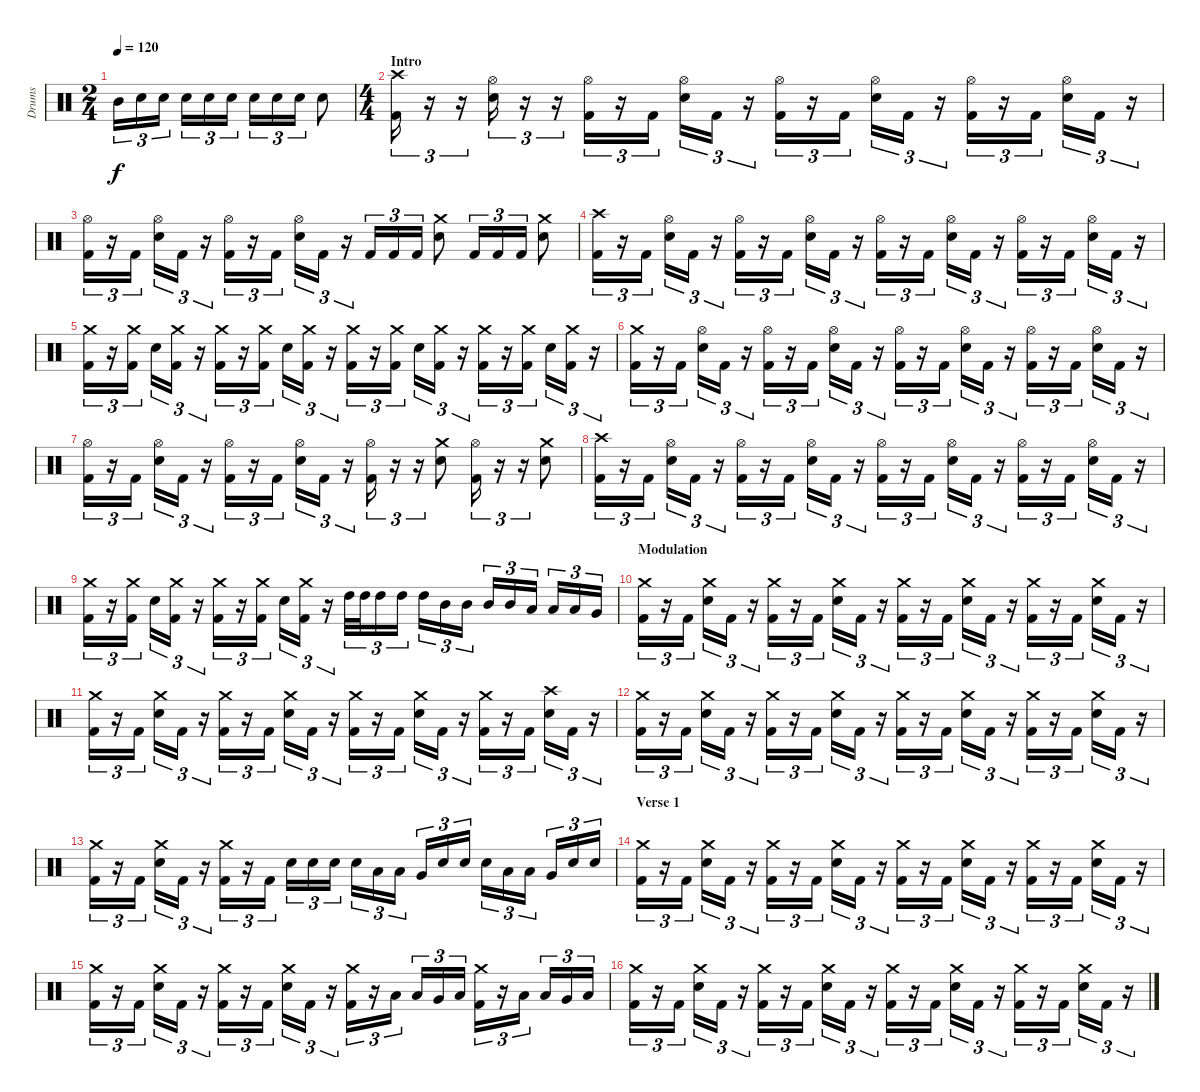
\track ("Drums" "Drums") {instrument percussion}
\staff {score}
\articulation defaults
\ts (2 4)
\tempo 120
\tempo 85
\tempo 120
\clef neutral
\ks c "Mid Tom (hit)".16{tu (3 2) dy f} "Electric Snare (hit)".16{tu (3 2)} "Electric Snare (hit)".16{tu (3 2)} "Electric Snare (hit)".16{tu (3 2)} "Electric Snare (hit)".16{tu (3 2)} "Electric Snare (hit)".16{tu (3 2)} "Electric Snare (hit)".16{tu (3 2)} "Electric Snare (hit)".16{tu (3 2)} "Electric Snare (hit)".16{tu (3 2)} "Electric Snare (hit)".8
|
\ts (4 4)
\section ("" "Intro")
("Crash high (hit)" "Kick (hit) 2").16{tu (3 2)} r.16{tu (3 2)} r.16{tu (3 2)} ("Hi-Hat (open)" "Electric Snare (hit)").16{tu (3 2)} r.16{tu (3 2)} r.16{tu (3 2)} ("Hi-Hat (open)" "Kick (hit) 2").16{tu (3 2)} r.16{tu (3 2)} "Kick (hit) 2".16{tu (3 2)} ("Hi-Hat (open)" "Electric Snare (hit)").16{tu (3 2)} "Kick (hit) 2".16{tu (3 2)} r.16{tu (3 2)} ("Hi-Hat (open)" "Kick (hit) 2").16{tu (3 2)} r.16{tu (3 2)} "Kick (hit) 2".16{tu (3 2)} ("Hi-Hat (open)" "Electric Snare (hit)").16{tu (3 2)} "Kick (hit) 2".16{tu (3 2)} r.16{tu (3 2)} ("Hi-Hat (open)" "Kick (hit) 2").16{tu (3 2)} r.16{tu (3 2)} "Kick (hit) 2".16{tu (3 2)} ("Hi-Hat (open)" "Electric Snare (hit)").16{tu (3 2)} "Kick (hit) 2".16{tu (3 2)} r.16{tu (3 2)} |
("Hi-Hat (open)" "Kick (hit) 2").16{tu (3 2)} r.16{tu (3 2)} "Kick (hit) 2".16{tu (3 2)} ("Hi-Hat (open)" "Electric Snare (hit)").16{tu (3 2)} "Kick (hit) 2".16{tu (3 2)} r.16{tu (3 2)} ("Hi-Hat (open)" "Kick (hit) 2").16{tu (3 2)} r.16{tu (3 2)} "Kick (hit) 2".16{tu (3 2)} ("Hi-Hat (open)" "Electric Snare (hit)").16{tu (3 2)} "Kick (hit) 2".16{tu (3 2)} r.16{tu (3 2)} "Kick (hit) 2".16{tu (3 2)} "Kick (hit) 2".16{tu (3 2)} "Kick (hit) 2".16{tu (3 2)} ("Crash medium (hit)" "Electric Snare (hit)").8 "Kick (hit) 2".16{tu (3 2)} "Kick (hit) 2".16{tu (3 2)} "Kick (hit) 2".16{tu (3 2)} ("Crash medium (hit)" "Electric Snare (hit)").8 |
("Crash high (hit)" "Kick (hit) 2").16{tu (3 2)} r.16{tu (3 2)} "Kick (hit) 2".16{tu (3 2)} ("Hi-Hat (open)" "Electric Snare (hit)").16{tu (3 2)} "Kick (hit) 2".16{tu (3 2)} r.16{tu (3 2)} ("Hi-Hat (open)" "Kick (hit) 2").16{tu (3 2)} r.16{tu (3 2)} "Kick (hit) 2".16{tu (3 2)} ("Hi-Hat (open)" "Electric Snare (hit)").16{tu (3 2)} "Kick (hit) 2".16{tu (3 2)} r.16{tu (3 2)} ("Hi-Hat (open)" "Kick (hit) 2").16{tu (3 2)} r.16{tu (3 2)} "Kick (hit) 2".16{tu (3 2)} ("Hi-Hat (open)" "Electric Snare (hit)").16{tu (3 2)} "Kick (hit) 2".16{tu (3 2)} r.16{tu (3 2)} ("Hi-Hat (open)" "Kick (hit) 2").16{tu (3 2)} r.16{tu (3 2)} "Kick (hit) 2".16{tu (3 2)} ("Hi-Hat (open)" "Electric Snare (hit)").16{tu (3 2)} "Kick (hit) 2".16{tu (3 2)} r.16{tu (3 2)} |
("Crash medium (hit)" "Kick (hit) 2").16{tu (3 2)} r.16{tu (3 2)} ("Crash medium (hit)" "Kick (hit) 2").16{tu (3 2)} "Electric Snare (hit)".16{tu (3 2)} ("Crash medium (hit)" "Kick (hit) 2").16{tu (3 2)} r.16{tu (3 2)} ("Crash medium (hit)" "Kick (hit) 2").16{tu (3 2)} r.16{tu (3 2)} ("Crash medium (hit)" "Kick (hit) 2").16{tu (3 2)} "Electric Snare (hit)".16{tu (3 2)} ("Crash medium (hit)" "Kick (hit) 2").16{tu (3 2)} r.16{tu (3 2)} ("Crash medium (hit)" "Kick (hit) 2").16{tu (3 2)} r.16{tu (3 2)} ("Crash medium (hit)" "Kick (hit) 2").16{tu (3 2)} "Electric Snare (hit)".16{tu (3 2)} ("Crash medium (hit)" "Kick (hit) 2").16{tu (3 2)} r.16{tu (3 2)} ("Crash medium (hit)" "Kick (hit) 2").16{tu (3 2)} r.16{tu (3 2)} ("Crash medium (hit)" "Kick (hit) 2").16{tu (3 2)} "Electric Snare (hit)".16{tu (3 2)} ("Crash medium (hit)" "Kick (hit) 2").16{tu (3 2)} r.16{tu (3 2)} |
("Crash medium (hit)" "Kick (hit) 2").16{tu (3 2)} r.16{tu (3 2)} "Kick (hit) 2".16{tu (3 2)} ("Hi-Hat (open)" "Electric Snare (hit)").16{tu (3 2)} "Kick (hit) 2".16{tu (3 2)} r.16{tu (3 2)} ("Hi-Hat (open)" "Kick (hit) 2").16{tu (3 2)} r.16{tu (3 2)} "Kick (hit) 2".16{tu (3 2)} ("Hi-Hat (open)" "Electric Snare (hit)").16{tu (3 2)} "Kick (hit) 2".16{tu (3 2)} r.16{tu (3 2)} ("Hi-Hat (open)" "Kick (hit) 2").16{tu (3 2)} r.16{tu (3 2)} "Kick (hit) 2".16{tu (3 2)} ("Hi-Hat (open)" "Electric Snare (hit)").16{tu (3 2)} "Kick (hit) 2".16{tu (3 2)} r.16{tu (3 2)} ("Hi-Hat (open)" "Kick (hit) 2").16{tu (3 2)} r.16{tu (3 2)} "Kick (hit) 2".16{tu (3 2)} ("Hi-Hat (open)" "Electric Snare (hit)").16{tu (3 2)} "Kick (hit) 2".16{tu (3 2)} r.16{tu (3 2)} |
("Hi-Hat (open)" "Kick (hit) 2").16{tu (3 2)} r.16{tu (3 2)} "Kick (hit) 2".16{tu (3 2)} ("Hi-Hat (open)" "Electric Snare (hit)").16{tu (3 2)} "Kick (hit) 2".16{tu (3 2)} r.16{tu (3 2)} ("Hi-Hat (open)" "Kick (hit) 2").16{tu (3 2)} r.16{tu (3 2)} "Kick (hit) 2".16{tu (3 2)} ("Hi-Hat (open)" "Electric Snare (hit)").16{tu (3 2)} "Kick (hit) 2".16{tu (3 2)} r.16{tu (3 2)} ("Hi-Hat (open)" "Kick (hit) 2").16{tu (3 2)} r.16{tu (3 2)} r.16{tu (3 2)} ("Crash medium (hit)" "Electric Snare (hit)").8 ("Hi-Hat (open)" "Kick (hit) 2").16{tu (3 2)} r.16{tu (3 2)} r.16{tu (3 2)} ("Crash medium (hit)" "Electric Snare (hit)").8 |
("Crash high (hit)" "Kick (hit) 2").16{tu (3 2)} r.16{tu (3 2)} "Kick (hit) 2".16{tu (3 2)} ("Hi-Hat (open)" "Electric Snare (hit)").16{tu (3 2)} "Kick (hit) 2".16{tu (3 2)} r.16{tu (3 2)} ("Hi-Hat (open)" "Kick (hit) 2").16{tu (3 2)} r.16{tu (3 2)} "Kick (hit) 2".16{tu (3 2)} ("Hi-Hat (open)" "Electric Snare (hit)").16{tu (3 2)} "Kick (hit) 2".16{tu (3 2)} r.16{tu (3 2)} ("Hi-Hat (open)" "Kick (hit) 2").16{tu (3 2)} r.16{tu (3 2)} "Kick (hit) 2".16{tu (3 2)} ("Hi-Hat (open)" "Electric Snare (hit)").16{tu (3 2)} "Kick (hit) 2".16{tu (3 2)} r.16{tu (3 2)} ("Hi-Hat (open)" "Kick (hit) 2").16{tu (3 2)} r.16{tu (3 2)} "Kick (hit) 2".16{tu (3 2)} ("Hi-Hat (open)" "Electric Snare (hit)").16{tu (3 2)} "Kick (hit) 2".16{tu (3 2)} r.16{tu (3 2)} |
("Crash medium (hit)" "Kick (hit) 2").16{tu (3 2)} r.16{tu (3 2)} ("Crash medium (hit)" "Kick (hit) 2").16{tu (3 2)} "Electric Snare (hit)".16{tu (3 2)} ("Crash medium (hit)" "Kick (hit) 2").16{tu (3 2)} r.16{tu (3 2)} ("Crash medium (hit)" "Kick (hit) 2").16{tu (3 2)} r.16{tu (3 2)} ("Crash medium (hit)" "Kick (hit) 2").16{tu (3 2)} "Electric Snare (hit)".16{tu (3 2)} ("Crash medium (hit)" "Kick (hit) 2").16{tu (3 2)} r.16{tu (3 2)} "High Tom (hit)".32{tu (3 2)} "High Tom (hit)".32{tu (3 2)} "High Tom (hit)".16{tu (3 2)} "High Tom (hit)".16{tu (3 2)} "High Tom (hit)".16{tu (3 2)} "Mid Tom (hit)".16{tu (3 2)} "Mid Tom (hit)".16{tu (3 2)} "Mid Tom (hit)".16{tu (3 2)} "Mid Tom (hit)".16{tu (3 2)} "Low Tom (hit)".16{tu (3 2)} "Low Tom (hit)".16{tu (3 2)} "Low Tom (hit)".16{tu (3 2)} "Very Low Tom (hit)".16{tu (3 2)} |
\section ("" "Modulation")
("Crash medium (hit)" "Kick (hit) 2").16{tu (3 2)} r.16{tu (3 2)} "Kick (hit) 2".16{tu (3 2)} ("Crash medium (hit)" "Electric Snare (hit)").16{tu (3 2)} "Kick (hit) 2".16{tu (3 2)} r.16{tu (3 2)} ("Crash medium (hit)" "Kick (hit) 2").16{tu (3 2)} r.16{tu (3 2)} "Kick (hit) 2".16{tu (3 2)} ("Crash medium (hit)" "Electric Snare (hit)").16{tu (3 2)} "Kick (hit) 2".16{tu (3 2)} r.16{tu (3 2)} ("Crash medium (hit)" "Kick (hit) 2").16{tu (3 2)} r.16{tu (3 2)} "Kick (hit) 2".16{tu (3 2)} ("Crash medium (hit)" "Electric Snare (hit)").16{tu (3 2)} "Kick (hit) 2".16{tu (3 2)} r.16{tu (3 2)} ("Crash medium (hit)" "Kick (hit) 2").16{tu (3 2)} r.16{tu (3 2)} "Kick (hit) 2".16{tu (3 2)} ("Crash medium (hit)" "Electric Snare (hit)").16{tu (3 2)} "Kick (hit) 2".16{tu (3 2)} r.16{tu (3 2)} |
("Crash medium (hit)" "Kick (hit) 2").16{tu (3 2)} r.16{tu (3 2)} "Kick (hit) 2".16{tu (3 2)} ("Crash medium (hit)" "Electric Snare (hit)").16{tu (3 2)} "Kick (hit) 2".16{tu (3 2)} r.16{tu (3 2)} ("Crash medium (hit)" "Kick (hit) 2").16{tu (3 2)} r.16{tu (3 2)} "Kick (hit) 2".16{tu (3 2)} ("Crash medium (hit)" "Electric Snare (hit)").16{tu (3 2)} "Kick (hit) 2".16{tu (3 2)} r.16{tu (3 2)} ("Crash medium (hit)" "Kick (hit) 2").16{tu (3 2)} r.16{tu (3 2)} "Kick (hit) 2".16{tu (3 2)} ("Crash medium (hit)" "Electric Snare (hit)").16{tu (3 2)} "Kick (hit) 2".16{tu (3 2)} r.16{tu (3 2)} ("Crash medium (hit)" "Kick (hit) 2").16{tu (3 2)} r.16{tu (3 2)} "Kick (hit) 2".16{tu (3 2)} ("Crash high (hit)" "Electric Snare (hit)").16{tu (3 2)} "Kick (hit) 2".16{tu (3 2)} r.16{tu (3 2)} |
("Crash medium (hit)" "Kick (hit) 2").16{tu (3 2)} r.16{tu (3 2)} "Kick (hit) 2".16{tu (3 2)} ("Crash medium (hit)" "Electric Snare (hit)").16{tu (3 2)} "Kick (hit) 2".16{tu (3 2)} r.16{tu (3 2)} ("Crash medium (hit)" "Kick (hit) 2").16{tu (3 2)} r.16{tu (3 2)} "Kick (hit) 2".16{tu (3 2)} ("Crash medium (hit)" "Electric Snare (hit)").16{tu (3 2)} "Kick (hit) 2".16{tu (3 2)} r.16{tu (3 2)} ("Crash medium (hit)" "Kick (hit) 2").16{tu (3 2)} r.16{tu (3 2)} "Kick (hit) 2".16{tu (3 2)} ("Crash medium (hit)" "Electric Snare (hit)").16{tu (3 2)} "Kick (hit) 2".16{tu (3 2)} r.16{tu (3 2)} ("Crash medium (hit)" "Kick (hit) 2").16{tu (3 2)} r.16{tu (3 2)} "Kick (hit) 2".16{tu (3 2)} ("Crash medium (hit)" "Electric Snare (hit)").16{tu (3 2)} "Kick (hit) 2".16{tu (3 2)} r.16{tu (3 2)} |
("Crash medium (hit)" "Kick (hit) 2").16{tu (3 2)} r.16{tu (3 2)} "Kick (hit) 2".16{tu (3 2)} ("Crash medium (hit)" "Electric Snare (hit)").16{tu (3 2)} "Kick (hit) 2".16{tu (3 2)} r.16{tu (3 2)} ("Crash medium (hit)" "Kick (hit) 2").16{tu (3 2)} r.16{tu (3 2)} "Kick (hit) 2".16{tu (3 2)} "Electric Snare (hit)".16{tu (3 2)} "Electric Snare (hit)".16{tu (3 2)} "Electric Snare (hit)".16{tu (3 2)} "Electric Snare (hit)".16{tu (3 2)} "Low Tom (hit)".16{tu (3 2)} "Low Tom (hit)".16{tu (3 2)} "Very Low Tom (hit)".16{tu (3 2)} "Electric Snare (hit)".16{tu (3 2)} "Electric Snare (hit)".16{tu (3 2)} "Electric Snare (hit)".16{tu (3 2)} "Low Tom (hit)".16{tu (3 2)} "Low Tom (hit)".16{tu (3 2)} "Very Low Tom (hit)".16{tu (3 2)} "Electric Snare (hit)".16{tu (3 2)} "Electric Snare (hit)".16{tu (3 2)} |
\section ("" "Verse 1")
("Crash medium (hit)" "Kick (hit) 2").16{tu (3 2)} r.16{tu (3 2)} "Kick (hit) 2".16{tu (3 2)} ("Crash medium (hit)" "Electric Snare (hit)").16{tu (3 2)} "Kick (hit) 2".16{tu (3 2)} r.16{tu (3 2)} ("Crash medium (hit)" "Kick (hit) 2").16{tu (3 2)} r.16{tu (3 2)} "Kick (hit) 2".16{tu (3 2)} ("Crash medium (hit)" "Electric Snare (hit)").16{tu (3 2)} "Kick (hit) 2".16{tu (3 2)} r.16{tu (3 2)} ("Crash medium (hit)" "Kick (hit) 2").16{tu (3 2)} r.16{tu (3 2)} "Kick (hit) 2".16{tu (3 2)} ("Crash medium (hit)" "Electric Snare (hit)").16{tu (3 2)} "Kick (hit) 2".16{tu (3 2)} r.16{tu (3 2)} ("Crash medium (hit)" "Kick (hit) 2").16{tu (3 2)} r.16{tu (3 2)} "Kick (hit) 2".16{tu (3 2)} ("Crash medium (hit)" "Electric Snare (hit)").16{tu (3 2)} "Kick (hit) 2".16{tu (3 2)} r.16{tu (3 2)} |
("Crash medium (hit)" "Kick (hit) 2").16{tu (3 2)} r.16{tu (3 2)} "Kick (hit) 2".16{tu (3 2)} ("Crash medium (hit)" "Electric Snare (hit)").16{tu (3 2)} "Kick (hit) 2".16{tu (3 2)} r.16{tu (3 2)} ("Crash medium (hit)" "Kick (hit) 2").16{tu (3 2)} r.16{tu (3 2)} "Kick (hit) 2".16{tu (3 2)} ("Crash medium (hit)" "Electric Snare (hit)").16{tu (3 2)} "Kick (hit) 2".16{tu (3 2)} r.16{tu (3 2)} ("Crash medium (hit)" "Kick (hit) 2").16{tu (3 2)} r.16{tu (3 2)} "Low Tom (hit)".16{tu (3 2)} "Low Tom (hit)".16{tu (3 2)} "Very Low Tom (hit)".16{tu (3 2)} "Low Floor Tom (hit)".16{tu (3 2)} ("Crash medium (hit)" "Kick (hit) 2").16{tu (3 2)} r.16{tu (3 2)} "Low Tom (hit)".16{tu (3 2)} "Low Tom (hit)".16{tu (3 2)} "Very Low Tom (hit)".16{tu (3 2)} "Low Floor Tom (hit)".16{tu (3 2)} |
("Crash medium (hit)" "Kick (hit) 2").16{tu (3 2)} r.16{tu (3 2)} "Kick (hit) 2".16{tu (3 2)} ("Crash medium (hit)" "Electric Snare (hit)").16{tu (3 2)} "Kick (hit) 2".16{tu (3 2)} r.16{tu (3 2)} ("Crash medium (hit)" "Kick (hit) 2").16{tu (3 2)} r.16{tu (3 2)} "Kick (hit) 2".16{tu (3 2)} ("Crash medium (hit)" "Electric Snare (hit)").16{tu (3 2)} "Kick (hit) 2".16{tu (3 2)} r.16{tu (3 2)} ("Crash medium (hit)" "Kick (hit) 2").16{tu (3 2)} r.16{tu (3 2)} "Kick (hit) 2".16{tu (3 2)} ("Crash medium (hit)" "Electric Snare (hit)").16{tu (3 2)} "Kick (hit) 2".16{tu (3 2)} r.16{tu (3 2)} ("Crash medium (hit)" "Kick (hit) 2").16{tu (3 2)} r.16{tu (3 2)} "Kick (hit) 2".16{tu (3 2)} ("Crash medium (hit)" "Electric Snare (hit)").16{tu (3 2)} "Kick (hit) 2".16{tu (3 2)} r.16{tu (3 2)}
